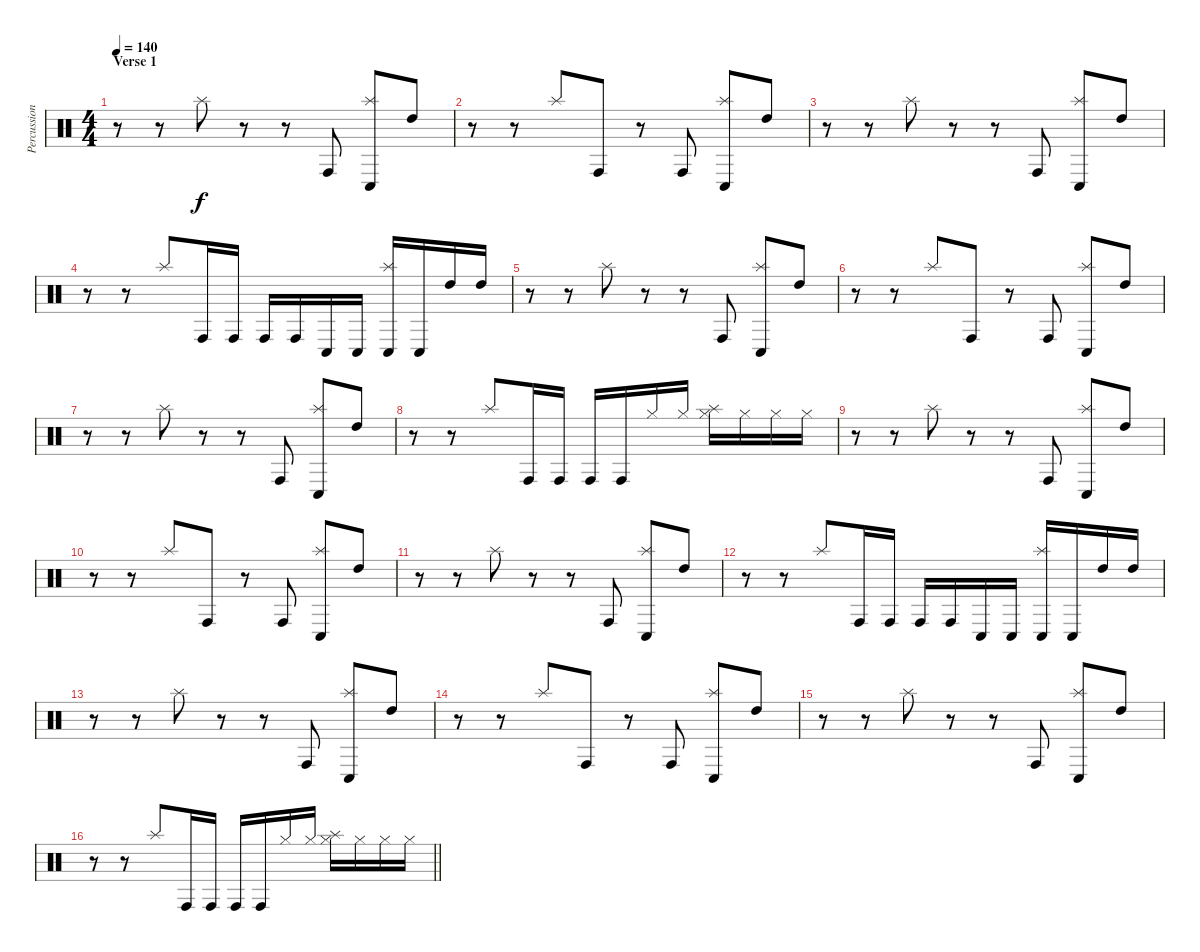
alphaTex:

\track ("Percussion" "Percussion") {instrument percussion}
\staff {score}
\articulation defaults
\ts (4 4)
\section ("" "Verse 1")
\tempo 140
\clef neutral
\ks c
r.8{dy f} r.8 "Splash (hit)".8 r.8 r.8 "Conga high (hit)".8 ("Conga low (hit)" "Splash (hit)").8 "High Tom (hit)".8 |
r.8 r.8 "Splash (hit)".8 "Conga high (hit)".8 r.8 "Conga high (hit)".8 ("Conga low (hit)" "Splash (hit)").8 "High Tom (hit)".8 |
r.8 r.8 "Splash (hit)".8 r.8 r.8 "Conga high (hit)".8 ("Conga low (hit)" "Splash (hit)").8 "High Tom (hit)".8 |
r.8 r.8 "Splash (hit)".8 "Conga high (hit)".16 "Conga high (hit)".16 "Conga high (hit)".16 "Conga high (hit)".16 "Conga low (hit)".16 "Conga low (hit)".16 ("Conga low (hit)" "Splash (hit)").16 "Conga low (hit)".16 "High Tom (hit)".16 "High Tom (hit)".16 |
r.8 r.8 "Splash (hit)".8 r.8 r.8 "Conga high (hit)".8 ("Conga low (hit)" "Splash (hit)").8 "High Tom (hit)".8 |
r.8 r.8 "Splash (hit)".8 "Conga high (hit)".8 r.8 "Conga high (hit)".8 ("Conga low (hit)" "Splash (hit)").8 "High Tom (hit)".8 |
r.8 r.8 "Splash (hit)".8 r.8 r.8 "Conga high (hit)".8 ("Conga low (hit)" "Splash (hit)").8 "High Tom (hit)".8 |
r.8 r.8 "Splash (hit)".8 "Conga high (hit)".16 "Conga high (hit)".16 "Conga high (hit)".16 "Conga high (hit)".16 "Hi-Hat (closed)".16 "Hi-Hat (closed)".16 ("Hi-Hat (closed)" "Splash (hit)").16 "Hi-Hat (closed)".16 "Hi-Hat (closed)".16 "Hi-Hat (closed)".16 |
r.8 r.8 "Splash (hit)".8 r.8 r.8 "Conga high (hit)".8 ("Conga low (hit)" "Splash (hit)").8 "High Tom (hit)".8 |
r.8 r.8 "Splash (hit)".8 "Conga high (hit)".8 r.8 "Conga high (hit)".8 ("Conga low (hit)" "Splash (hit)").8 "High Tom (hit)".8 |
r.8 r.8 "Splash (hit)".8 r.8 r.8 "Conga high (hit)".8 ("Conga low (hit)" "Splash (hit)").8 "High Tom (hit)".8 |
r.8 r.8 "Splash (hit)".8 "Conga high (hit)".16 "Conga high (hit)".16 "Conga high (hit)".16 "Conga high (hit)".16 "Conga low (hit)".16 "Conga low (hit)".16 ("Conga low (hit)" "Splash (hit)").16 "Conga low (hit)".16 "High Tom (hit)".16 "High Tom (hit)".16 |
r.8 r.8 "Splash (hit)".8 r.8 r.8 "Conga high (hit)".8 ("Conga low (hit)" "Splash (hit)").8 "High Tom (hit)".8 |
r.8 r.8 "Splash (hit)".8 "Conga high (hit)".8 r.8 "Conga high (hit)".8 ("Conga low (hit)" "Splash (hit)").8 "High Tom (hit)".8 |
r.8 r.8 "Splash (hit)".8 r.8 r.8 "Conga high (hit)".8 ("Conga low (hit)" "Splash (hit)").8 "High Tom (hit)".8 |
\barLineRight lightlight
r.8 r.8 "Splash (hit)".8 "Conga high (hit)".16 "Conga high (hit)".16 "Conga high (hit)".16 "Conga high (hit)".16 "Hi-Hat (closed)".16 "Hi-Hat (closed)".16 ("Hi-Hat (closed)" "Splash (hit)").16 "Hi-Hat (closed)".16 "Hi-Hat (closed)".16 "Hi-Hat (closed)".16
